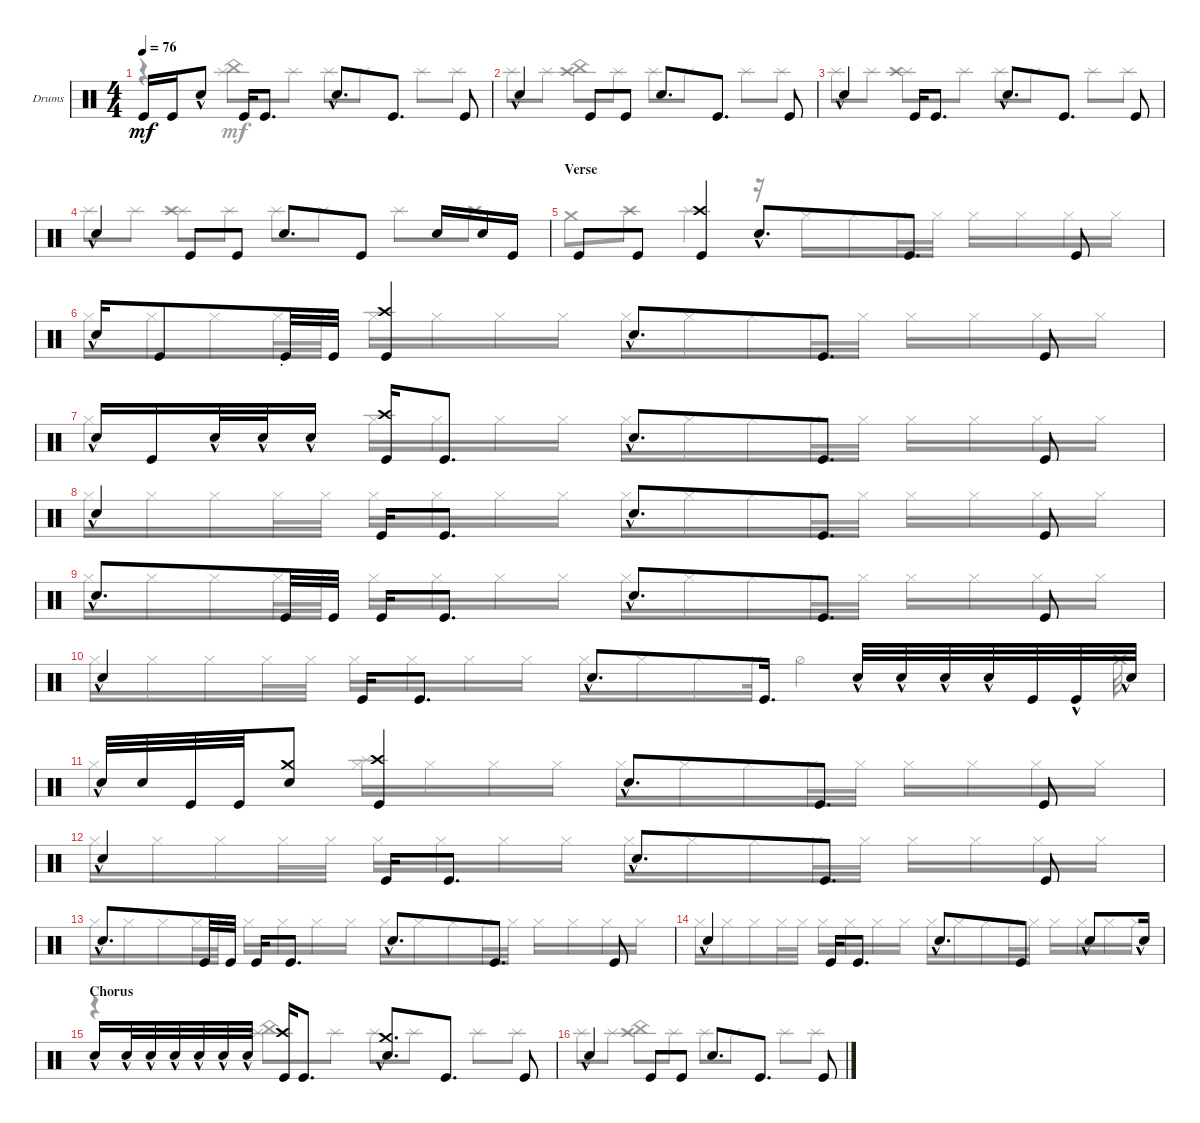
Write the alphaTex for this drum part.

\defaultSystemsLayout 4
\bracketExtendMode groupsimilarinstruments
\firstSystemTrackNameOrientation horizontal
\otherSystemsTrackNameOrientation horizontal
\track ("Drumkit" "Drums") {instrument percussion}
\staff {score}
\articulation defaults
\voice
\ts (4 4)
\tempo 76
\clef neutral
\ks c "Kick (hit)".16{dy mf} "Kick (hit)".16 "Snare (hit) 2"{hac}.8 "Kick (hit)".16 "Kick (hit)".8{d} "Snare (hit) 2"{hac}.8{d} "Kick (hit)".8{d} "Kick (hit)".8
|
"Snare (hit) 2"{hac}.4 "Kick (hit)".8 "Kick (hit)".8 "Snare (hit) 2".8{d} "Kick (hit)".8{d} "Kick (hit)".8 |
"Snare (hit) 2"{hac}.4 "Kick (hit)".16 "Kick (hit)".8{d} "Snare (hit) 2"{hac}.8{d} "Kick (hit)".8{d} "Kick (hit)".8 |
"Snare (hit) 2"{hac}.4 "Kick (hit)".8 "Kick (hit)".8 "Snare (hit) 2".8{d} "Kick (hit)".8 "Snare (hit) 2".16 "Snare (hit) 2".16 "Kick (hit)".16 |
\section ("" "Verse")
"Kick (hit)".8 "Kick (hit)".8 ("Crash high (hit)" "Kick (hit)").4 "Snare (hit) 2"{hac}.8{d} "Kick (hit)".8{d} "Kick (hit)".8 |
"Snare (hit) 2"{hac}.16 "Kick (hit)".8 "Kick (hit)"{st}.32 "Kick (hit)".32 ("Kick (hit)" "Crash high (hit)").4 "Snare (hit) 2"{hac}.8{d} "Kick (hit)".8{d} "Kick (hit)".8 |
"Snare (hit) 2"{hac}.16 "Kick (hit)".16 "Snare (hit) 2"{hac}.32 "Snare (hit) 2"{hac}.32 "Snare (hit) 2"{hac}.16 ("Kick (hit)" "Crash high (hit)").16 "Kick (hit)".8{d} "Snare (hit) 2"{hac}.8{d} "Kick (hit)".8{d} "Kick (hit)".8 |
"Snare (hit) 2"{hac}.4 "Kick (hit)".16 "Kick (hit)".8{d} "Snare (hit) 2"{hac}.8{d} "Kick (hit)".8{d} "Kick (hit)".8 |
"Snare (hit) 2"{hac}.8{d} "Kick (hit)".32 "Kick (hit)".32 "Kick (hit)".16 "Kick (hit)".8{d} "Snare (hit) 2"{hac}.8{d} "Kick (hit)".8{d} "Kick (hit)".8 |
"Snare (hit) 2"{hac}.4 "Kick (hit)".16 "Kick (hit)".8{d} "Snare (hit) 2"{hac}.8{d} "Kick (hit)".16{d} "Snare (hit) 2"{hac}.32 "Snare (hit) 2"{hac}.32 "Snare (hit) 2"{hac}.32 "Snare (hit) 2"{hac}.32 "Kick (hit)".32 "Kick (hit)"{hac}.32 "Snare (hit) 2"{hac}.32 |
"Snare (hit) 2"{hac}.32 "Snare (hit) 2".32 "Kick (hit)".32 "Kick (hit)".32 ("Crash medium (hit)" "Snare (hit) 2").8 ("Crash high (hit)" "Kick (hit)").4 "Snare (hit) 2"{hac}.8{d} "Kick (hit)".8{d} "Kick (hit)".8 |
"Snare (hit) 2"{hac}.4 "Kick (hit)".16 "Kick (hit)".8{d} "Snare (hit) 2"{hac}.8{d} "Kick (hit)".8{d} "Kick (hit)".8 |
"Snare (hit) 2"{hac}.8{d} "Kick (hit)".32 "Kick (hit)".32 "Kick (hit)".16 "Kick (hit)".8{d} "Snare (hit) 2"{hac}.8{d} "Kick (hit)".8{d} "Kick (hit)".8 |
"Snare (hit) 2"{hac}.4 "Kick (hit)".16 "Kick (hit)".8{d} "Snare (hit) 2"{hac}.8{d} "Kick (hit)".8 "Snare (hit) 2"{hac}.8 "Snare (hit) 2"{hac}.16 |
\section ("" "Chorus")
"Snare (hit) 2"{hac}.16 "Snare (hit) 2"{hac}.32 "Snare (hit) 2"{hac}.32 "Snare (hit) 2"{hac}.32 "Snare (hit) 2"{hac}.32 "Snare (hit) 2"{hac}.32 "Snare (hit) 2"{hac}.32 ("Kick (hit)" "Crash high (hit)").16 "Kick (hit)".8{d} ("Snare (hit) 2"{hac} "Crash medium (hit)").8{d} "Kick (hit)".8{d} "Kick (hit)".8 |
"Snare (hit) 2"{hac}.4 "Kick (hit)".8 "Kick (hit)".8 "Snare (hit) 2".8{d} "Kick (hit)".8{d} "Kick (hit)".8
\voice
\clef neutral
\ottava regular
\simile none
\ks c
r.4{dy mf} ("Splash (hit)" "China (hit)").8 "Splash (hit)".8 "Splash (hit)".8 "Splash (hit)".8 "Splash (hit)".8 "Splash (hit)".8 |
"Splash (hit)".8 "Splash (hit)".8 ("China (hit)" "Crash high (hit)").8 "Splash (hit)".8 "Splash (hit)".8 "Splash (hit)".8 "Splash (hit)".8 "Splash (hit)".8 |
"Splash (hit)".8 "Splash (hit)".8 ("Splash (hit)" "Crash high (hit)").8 "Splash (hit)".8 "Splash (hit)".8 "Splash (hit)".8 "Splash (hit)".8 "Splash (hit)".8 |
"Splash (hit)".8 "Splash (hit)".8 ("Splash (hit)" "Crash high (hit)").8 "Splash (hit)".8 "Splash (hit)".8 "Splash (hit)".8 "Splash (hit)".8 "Crash high (hit)".8 |
"Crash medium (hit)".8 "Crash high (hit)".8 "Splash (hit)".4 r.16 "Hi-Hat (closed)".16 "Hi-Hat (closed)".16 "Hi-Hat (closed)".32 "Hi-Hat (closed)".32 "Hi-Hat (closed)".16 "Hi-Hat (closed)".16 "Hi-Hat (closed)".16 "Hi-Hat (closed)".16 |
"Hi-Hat (closed)".16 "Hi-Hat (closed)".16 "Hi-Hat (closed)".16 "Hi-Hat (closed)".32 "Hi-Hat (closed)".32 "Hi-Hat (closed)".16 "Hi-Hat (closed)".16 "Hi-Hat (closed)".16 "Hi-Hat (closed)".16 "Hi-Hat (closed)".16 "Hi-Hat (closed)".16 "Hi-Hat (closed)".16 "Hi-Hat (closed)".32 "Hi-Hat (closed)".32 "Hi-Hat (closed)".16 "Hi-Hat (closed)".16 "Hi-Hat (closed)".16 "Hi-Hat (closed)".16 |
"Hi-Hat (closed)".4 "Hi-Hat (closed)".16 "Hi-Hat (closed)".16 "Hi-Hat (closed)".16 "Hi-Hat (closed)".16 "Hi-Hat (closed)".16 "Hi-Hat (closed)".16 "Hi-Hat (closed)".16 "Hi-Hat (closed)".32 "Hi-Hat (closed)".32 "Hi-Hat (closed)".16 "Hi-Hat (closed)".16 "Hi-Hat (closed)".16 "Hi-Hat (closed)".16 |
"Hi-Hat (closed)".16 "Hi-Hat (closed)".16 "Hi-Hat (closed)".16 "Hi-Hat (closed)".32 "Hi-Hat (closed)".32 "Hi-Hat (closed)".16 "Hi-Hat (closed)".16 "Hi-Hat (closed)".16 "Hi-Hat (closed)".16 "Hi-Hat (closed)".16 "Hi-Hat (closed)".16 "Hi-Hat (closed)".16 "Hi-Hat (closed)".32 "Hi-Hat (closed)".32 "Hi-Hat (closed)".16 "Hi-Hat (closed)".16 "Hi-Hat (closed)".16 "Hi-Hat (closed)".16 |
"Hi-Hat (closed)".16 "Hi-Hat (closed)".16 "Hi-Hat (closed)".16 "Hi-Hat (closed)".32 "Hi-Hat (closed)".32 "Hi-Hat (closed)".16 "Hi-Hat (closed)".16 "Hi-Hat (closed)".16 "Hi-Hat (closed)".16 "Hi-Hat (closed)".16 "Hi-Hat (closed)".16 "Hi-Hat (closed)".16 "Hi-Hat (closed)".32 "Hi-Hat (closed)".32 "Hi-Hat (closed)".16 "Hi-Hat (closed)".16 "Hi-Hat (closed)".16 "Hi-Hat (closed)".16 |
"Hi-Hat (closed)".16 "Hi-Hat (closed)".16 "Hi-Hat (closed)".16 "Hi-Hat (closed)".32 "Hi-Hat (closed)".32 "Hi-Hat (closed)".16 "Hi-Hat (closed)".16 "Hi-Hat (closed)".16 "Hi-Hat (closed)".16 "Hi-Hat (closed)".16 "Hi-Hat (closed)".16 "Hi-Hat (closed)".16 "Hi-Hat (closed)".32 "Hi-Hat (half)".4 "Crash medium (hit)".32 |
"Hi-Hat (closed)".4 ("Hi-Hat (closed)" "Splash (hit)").16 "Hi-Hat (closed)".16 "Hi-Hat (closed)".16 "Hi-Hat (closed)".16 "Hi-Hat (closed)".16 "Hi-Hat (closed)".16 "Hi-Hat (closed)".16 "Hi-Hat (closed)".32 "Hi-Hat (closed)".32 "Hi-Hat (closed)".16 "Hi-Hat (closed)".16 "Hi-Hat (closed)".16 "Hi-Hat (closed)".16 |
"Hi-Hat (closed)".16 "Hi-Hat (closed)".16 "Hi-Hat (closed)".16 "Hi-Hat (closed)".32 "Hi-Hat (closed)".32 "Hi-Hat (closed)".16 "Hi-Hat (closed)".16 "Hi-Hat (closed)".16 "Hi-Hat (closed)".16 "Hi-Hat (closed)".16 "Hi-Hat (closed)".16 "Hi-Hat (closed)".16 "Hi-Hat (closed)".32 "Hi-Hat (closed)".32 "Hi-Hat (closed)".16 "Hi-Hat (closed)".16 "Hi-Hat (closed)".16 "Hi-Hat (closed)".16 |
"Hi-Hat (closed)".16 "Hi-Hat (closed)".16 "Hi-Hat (closed)".16 "Hi-Hat (closed)".32 "Hi-Hat (closed)".32 "Hi-Hat (closed)".16 "Hi-Hat (closed)".16 "Hi-Hat (closed)".16 "Hi-Hat (closed)".16 "Hi-Hat (closed)".16 "Hi-Hat (closed)".16 "Hi-Hat (closed)".16 "Hi-Hat (closed)".32 "Hi-Hat (closed)".32 "Hi-Hat (closed)".16 "Hi-Hat (closed)".16 "Hi-Hat (closed)".16 "Hi-Hat (closed)".16 |
"Hi-Hat (closed)".16 "Hi-Hat (closed)".16 "Hi-Hat (closed)".16 "Hi-Hat (closed)".32 "Hi-Hat (closed)".32 "Hi-Hat (closed)".16 "Hi-Hat (closed)".16 "Hi-Hat (closed)".16 "Hi-Hat (closed)".16 "Hi-Hat (closed)".16 "Hi-Hat (closed)".16 "Hi-Hat (closed)".16 "Hi-Hat (closed)".32 "Hi-Hat (closed)".32 "Hi-Hat (closed)".16 "Hi-Hat (closed)".16 "Hi-Hat (closed)".16 "Hi-Hat (closed)".16 |
r.4 ("Splash (hit)" "China (hit)").8 "Splash (hit)".8 "Splash (hit)".8 "Splash (hit)".8 "Splash (hit)".8 "Splash (hit)".8 |
"Splash (hit)".8 "Splash (hit)".8 ("China (hit)" "Crash high (hit)").8 "Splash (hit)".8 "Splash (hit)".8 "Splash (hit)".8 "Splash (hit)".8 "Splash (hit)".8
